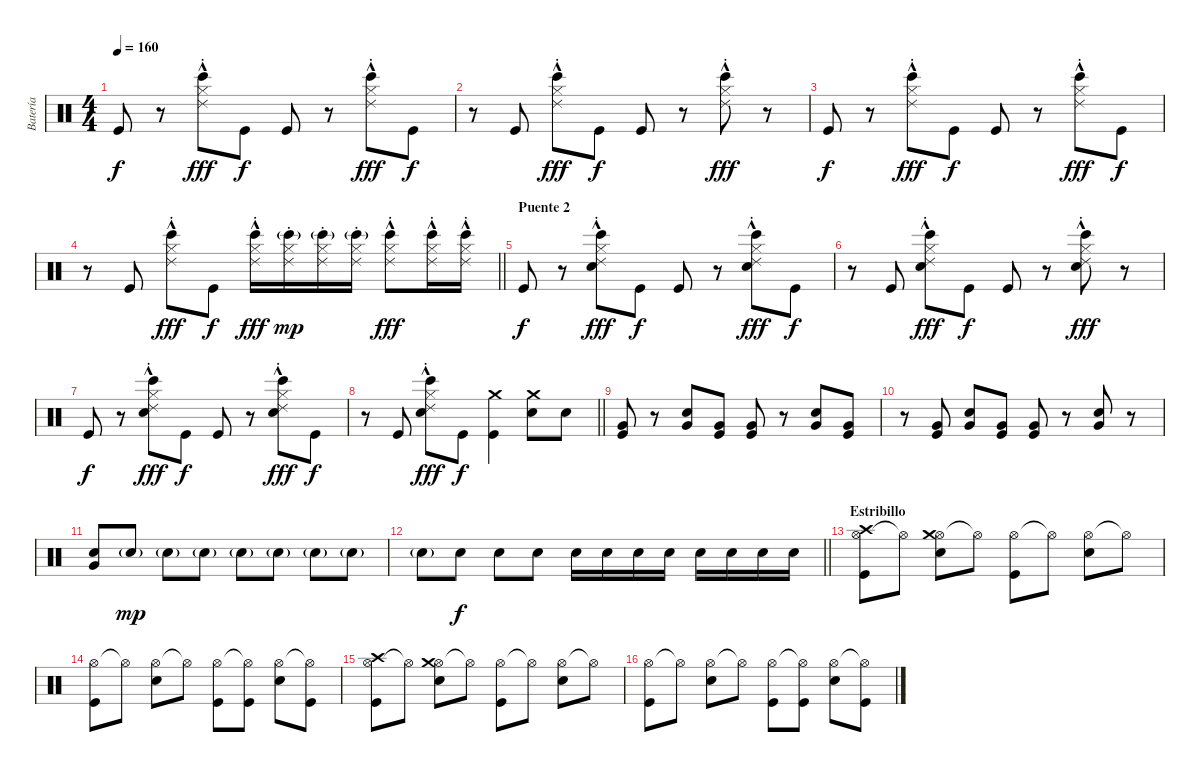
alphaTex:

\track ("Batería" "Batería") {instrument percussion}
\staff {score}
\articulation defaults
\ts (4 4)
\tempo 160
\clef neutral
\ks c "Kick (hit)".8{dy f}
r.8 ("Bongo High (hit)"{hac} "Ride (choke) 2" "Hi-Hat (closed)").8{dy fff} "Kick (hit)".8{dy f} "Kick (hit)".8 r.8 ("Bongo High (hit)"{hac} "Ride (choke) 2" "Hi-Hat (closed)").8{dy fff} "Kick (hit)".8{dy f} |
r.8 "Kick (hit)".8 ("Bongo High (hit)"{hac} "Ride (choke) 2" "Hi-Hat (closed)").8{dy fff} "Kick (hit)".8{dy f} "Kick (hit)".8 r.8 ("Bongo High (hit)"{hac} "Ride (choke) 2" "Hi-Hat (closed)").8{dy fff} r.8 |
"Kick (hit)".8{dy f} r.8 ("Bongo High (hit)"{hac} "Ride (choke) 2" "Hi-Hat (closed)").8{dy fff} "Kick (hit)".8{dy f} "Kick (hit)".8 r.8 ("Bongo High (hit)"{hac} "Ride (choke) 2" "Hi-Hat (closed)").8{dy fff} "Kick (hit)".8{dy f} |
\barLineRight lightlight
r.8 "Kick (hit)".8 ("Bongo High (hit)"{hac} "Ride (choke) 2" "Hi-Hat (closed)").8{dy fff} "Kick (hit)".8{dy f} ("Bongo High (hit)"{hac} "Ride (choke) 2" "Hi-Hat (closed)").16{dy fff} ("Bongo High (hit)"{g} "Ride (choke) 2" "Hi-Hat (closed)").16{dy mp} ("Bongo High (hit)"{g} "Ride (choke) 2" "Hi-Hat (closed)").16 ("Bongo High (hit)"{g} "Ride (choke) 2" "Hi-Hat (closed)").16 ("Bongo High (hit)"{hac} "Ride (choke) 2" "Hi-Hat (closed)").8{dy fff} ("Bongo High (hit)"{hac} "Ride (choke) 2" "Hi-Hat (closed)").16 ("Bongo High (hit)"{hac} "Ride (choke) 2" "Hi-Hat (closed)").16 |
\section ("" "Puente 2")
"Kick (hit)".8{dy f} r.8 ("Electric Snare (hit)" "Bongo High (hit)"{hac} "Ride (choke) 2" "Hi-Hat (closed)").8{dy fff} "Kick (hit)".8{dy f} "Kick (hit)".8 r.8 ("Electric Snare (hit)" "Bongo High (hit)"{hac} "Ride (choke) 2" "Hi-Hat (closed)").8{dy fff} "Kick (hit)".8{dy f} |
r.8 "Kick (hit)".8 ("Electric Snare (hit)" "Bongo High (hit)"{hac} "Ride (choke) 2" "Hi-Hat (closed)").8{dy fff} "Kick (hit)".8{dy f} "Kick (hit)".8 r.8 ("Electric Snare (hit)" "Bongo High (hit)"{hac} "Ride (choke) 2" "Hi-Hat (closed)").8{dy fff} r.8 |
"Kick (hit)".8{dy f} r.8 ("Electric Snare (hit)" "Bongo High (hit)"{hac} "Ride (choke) 2" "Hi-Hat (closed)").8{dy fff} "Kick (hit)".8{dy f} "Kick (hit)".8 r.8 ("Electric Snare (hit)" "Bongo High (hit)"{hac} "Ride (choke) 2" "Hi-Hat (closed)").8{dy fff} "Kick (hit)".8{dy f} |
\barLineRight lightlight
r.8 "Kick (hit)".8 ("Electric Snare (hit)" "Bongo High (hit)"{hac} "Ride (choke) 2" "Hi-Hat (closed)").8{dy fff} "Kick (hit)".8{dy f} ("Crash medium (hit)" "Kick (hit)").4 ("Crash medium (hit)" "Electric Snare (hit)").8 "Electric Snare (hit)".8 |
("Very Low Tom (hit)" "Kick (hit)").8 r.8 ("Very Low Tom (hit)" "Electric Snare (hit)").8 ("Very Low Tom (hit)" "Kick (hit)").8 ("Very Low Tom (hit)" "Kick (hit)").8 r.8 ("Very Low Tom (hit)" "Electric Snare (hit)").8 ("Very Low Tom (hit)" "Kick (hit)").8 |
r.8 ("Very Low Tom (hit)" "Kick (hit)").8 ("Very Low Tom (hit)" "Electric Snare (hit)").8 ("Very Low Tom (hit)" "Kick (hit)").8 ("Very Low Tom (hit)" "Kick (hit)").8 r.8 ("Very Low Tom (hit)" "Electric Snare (hit)").8 r.8 |
("Very Low Tom (hit)" "Electric Snare (hit)").8 "Electric Snare (hit)"{g}.8{dy mp} "Electric Snare (hit)"{g}.8 "Electric Snare (hit)"{g}.8 "Electric Snare (hit)"{g}.8 "Electric Snare (hit)"{g}.8 "Electric Snare (hit)"{g}.8 "Electric Snare (hit)"{g}.8 |
\barLineRight lightlight "Electric Snare (hit)"{g}.8 "Electric Snare (hit)".8{dy f} "Electric Snare (hit)".8 "Electric Snare (hit)".8 "Electric Snare (hit)".16 "Electric Snare (hit)".16 "Electric Snare (hit)".16 "Electric Snare (hit)".16 "Electric Snare (hit)".16 "Electric Snare (hit)".16 "Electric Snare (hit)".16 "Electric Snare (hit)".16
|
\section ("" "Estribillo")
("Hi-Hat (open)" "Kick (hit)" "Crash high (hit)").8 "Hi-Hat (open)"{t}.8 ("Hi-Hat (open)" "Electric Snare (hit)" "Crash medium (hit)").8 "Hi-Hat (open)"{t}.8 ("Hi-Hat (open)" "Kick (hit)").8 "Hi-Hat (open)"{t}.8 ("Hi-Hat (open)" "Electric Snare (hit)").8 "Hi-Hat (open)"{t}.8 |
("Hi-Hat (open)" "Kick (hit)").8 "Hi-Hat (open)"{t}.8 ("Hi-Hat (open)" "Electric Snare (hit)").8 "Hi-Hat (open)"{t}.8 ("Hi-Hat (open)" "Kick (hit)").8 ("Hi-Hat (open)"{t} "Kick (hit)").8 ("Hi-Hat (open)" "Electric Snare (hit)").8 ("Hi-Hat (open)"{t} "Kick (hit)").8 |
("Hi-Hat (open)" "Kick (hit)" "Crash high (hit)").8 "Hi-Hat (open)"{t}.8 ("Hi-Hat (open)" "Electric Snare (hit)" "Crash medium (hit)").8 "Hi-Hat (open)"{t}.8 ("Hi-Hat (open)" "Kick (hit)").8 "Hi-Hat (open)"{t}.8 ("Hi-Hat (open)" "Electric Snare (hit)").8 "Hi-Hat (open)"{t}.8 |
("Hi-Hat (open)" "Kick (hit)").8 "Hi-Hat (open)"{t}.8 ("Hi-Hat (open)" "Electric Snare (hit)").8 "Hi-Hat (open)"{t}.8 ("Hi-Hat (open)" "Kick (hit)").8 ("Hi-Hat (open)"{t} "Kick (hit)").8 ("Hi-Hat (open)" "Electric Snare (hit)").8 ("Hi-Hat (open)"{t} "Kick (hit)").8
